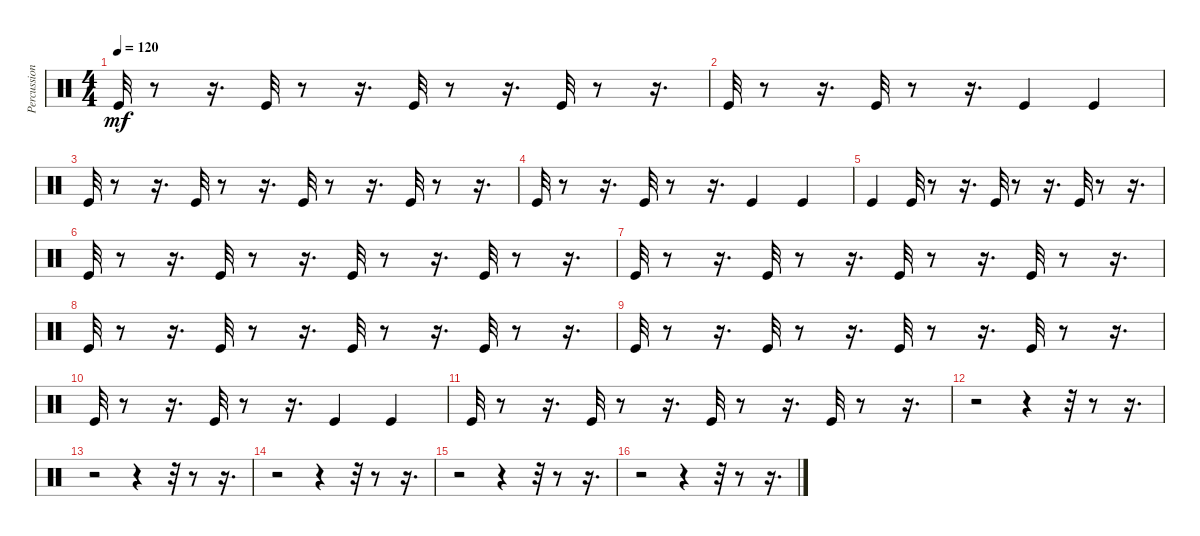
\track ("Percussion" "Percussion") {instrument percussion}
\staff {score}
\articulation defaults
\ts (4 4)
\tempo 120
\clef neutral
\ks c "Kick (hit)".32{dy mf}
r.8 r.16{d} "Kick (hit)".32 r.8 r.16{d} "Kick (hit)".32 r.8 r.16{d} "Kick (hit)".32 r.8 r.16{d} |
"Kick (hit)".32 r.8 r.16{d} "Kick (hit)".32 r.8 r.16{d} "Kick (hit)".4 "Kick (hit)".4 |
"Kick (hit)".32 r.8 r.16{d} "Kick (hit)".32 r.8 r.16{d} "Kick (hit)".32 r.8 r.16{d} "Kick (hit)".32 r.8 r.16{d} |
"Kick (hit)".32 r.8 r.16{d} "Kick (hit)".32 r.8 r.16{d} "Kick (hit)".4 "Kick (hit)".4 |
"Kick (hit)".4 "Kick (hit)".32 r.8 r.16{d} "Kick (hit)".32 r.8 r.16{d} "Kick (hit)".32 r.8 r.16{d} |
"Kick (hit)".32 r.8 r.16{d} "Kick (hit)".32 r.8 r.16{d} "Kick (hit)".32 r.8 r.16{d} "Kick (hit)".32 r.8 r.16{d} |
"Kick (hit)".32 r.8 r.16{d} "Kick (hit)".32 r.8 r.16{d} "Kick (hit)".32 r.8 r.16{d} "Kick (hit)".32 r.8 r.16{d} |
"Kick (hit)".32 r.8 r.16{d} "Kick (hit)".32 r.8 r.16{d} "Kick (hit)".32 r.8 r.16{d} "Kick (hit)".32 r.8 r.16{d} |
"Kick (hit)".32 r.8 r.16{d} "Kick (hit)".32 r.8 r.16{d} "Kick (hit)".32 r.8 r.16{d} "Kick (hit)".32 r.8 r.16{d} |
"Kick (hit)".32 r.8 r.16{d} "Kick (hit)".32 r.8 r.16{d} "Kick (hit)".4 "Kick (hit)".4 |
"Kick (hit)".32 r.8 r.16{d} "Kick (hit)".32 r.8 r.16{d} "Kick (hit)".32 r.8 r.16{d} "Kick (hit)".32 r.8 r.16{d} |
r.2 r.4 r.32 r.8 r.16{d} |
r.2 r.4 r.32 r.8 r.16{d} |
r.2 r.4 r.32 r.8 r.16{d} |
r.2 r.4 r.32 r.8 r.16{d} |
r.2 r.4 r.32 r.8 r.16{d}
